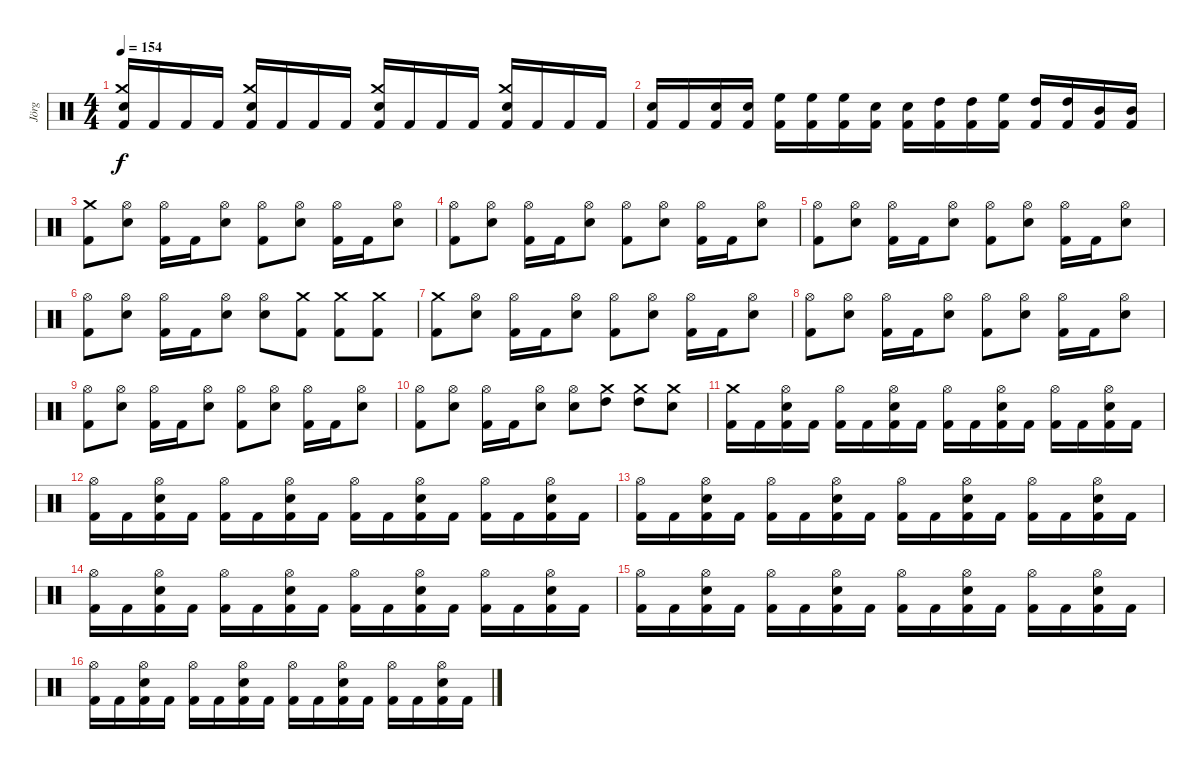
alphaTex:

\track ("Jörg" "Jörg") {instrument percussion}
\staff {score}
\articulation defaults
\ts (4 4)
\tempo 154
\clef neutral
\ks c
("Snare (hit) 2" "Crash medium (hit)" "Kick (hit) 2").16{dy f} "Kick (hit) 2".16 "Kick (hit) 2".16 "Kick (hit) 2".16 ("Snare (hit) 2" "Crash medium (hit)" "Kick (hit) 2").16 "Kick (hit) 2".16 "Kick (hit) 2".16 "Kick (hit) 2".16 ("Snare (hit) 2" "Crash medium (hit)" "Kick (hit) 2").16 "Kick (hit) 2".16 "Kick (hit) 2".16 "Kick (hit) 2".16 ("Snare (hit) 2" "Crash medium (hit)" "Kick (hit) 2").16 "Kick (hit) 2".16 "Kick (hit) 2".16 "Kick (hit) 2".16 |
("Snare (hit) 2" "Kick (hit) 2").16 "Kick (hit) 2".16 ("Snare (hit) 2" "Kick (hit) 2").16 ("Snare (hit) 2" "Kick (hit) 2").16 ("High Floor Tom (hit)" "Kick (hit) 2").16 ("High Floor Tom (hit)" "Kick (hit) 2").16 ("High Floor Tom (hit)" "Kick (hit) 2").16 ("Snare (hit) 2" "Kick (hit) 2").16 ("Snare (hit) 2" "Kick (hit) 2").16 ("High Tom (hit)" "Kick (hit) 2").16 ("High Tom (hit)" "Kick (hit) 2").16 ("High Floor Tom (hit)" "Kick (hit) 2").16 ("High Tom (hit)" "Kick (hit) 2").16 ("High Tom (hit)" "Kick (hit) 2").16 ("Mid Tom (hit)" "Kick (hit) 2").16 ("Mid Tom (hit)" "Kick (hit) 2").16 |
("Kick (hit) 2" "Crash medium (hit)").8 ("Snare (hit) 2" "Hi-Hat (open)").8 ("Kick (hit) 2" "Hi-Hat (open)").16 "Kick (hit) 2".16 ("Snare (hit) 2" "Hi-Hat (open)").8 ("Kick (hit) 2" "Hi-Hat (open)").8 ("Snare (hit) 2" "Hi-Hat (open)").8 ("Kick (hit) 2" "Hi-Hat (open)").16 "Kick (hit) 2".16 ("Snare (hit) 2" "Hi-Hat (open)").8 |
("Hi-Hat (open)" "Kick (hit) 2").8 ("Snare (hit) 2" "Hi-Hat (open)").8 ("Kick (hit) 2" "Hi-Hat (open)").16 "Kick (hit) 2".16 ("Snare (hit) 2" "Hi-Hat (open)").8 ("Kick (hit) 2" "Hi-Hat (open)").8 ("Snare (hit) 2" "Hi-Hat (open)").8 ("Kick (hit) 2" "Hi-Hat (open)").16 "Kick (hit) 2".16 ("Snare (hit) 2" "Hi-Hat (open)").8 |
("Hi-Hat (open)" "Kick (hit) 2").8 ("Snare (hit) 2" "Hi-Hat (open)").8 ("Kick (hit) 2" "Hi-Hat (open)").16 "Kick (hit) 2".16 ("Snare (hit) 2" "Hi-Hat (open)").8 ("Kick (hit) 2" "Hi-Hat (open)").8 ("Snare (hit) 2" "Hi-Hat (open)").8 ("Kick (hit) 2" "Hi-Hat (open)").16 "Kick (hit) 2".16 ("Snare (hit) 2" "Hi-Hat (open)").8 |
("Hi-Hat (open)" "Kick (hit) 2").8 ("Snare (hit) 2" "Hi-Hat (open)").8 ("Kick (hit) 2" "Hi-Hat (open)").16 "Kick (hit) 2".16 ("Snare (hit) 2" "Hi-Hat (open)").8 ("Snare (hit) 2" "Hi-Hat (open)").8 ("Kick (hit) 2" "Crash medium (hit)").8 ("Kick (hit) 2" "Crash medium (hit)").8 ("Kick (hit) 2" "Crash medium (hit)").8 |
("Kick (hit) 2" "Crash medium (hit)").8 ("Snare (hit) 2" "Hi-Hat (open)").8 ("Kick (hit) 2" "Hi-Hat (open)").16 "Kick (hit) 2".16 ("Snare (hit) 2" "Hi-Hat (open)").8 ("Kick (hit) 2" "Hi-Hat (open)").8 ("Snare (hit) 2" "Hi-Hat (open)").8 ("Kick (hit) 2" "Hi-Hat (open)").16 "Kick (hit) 2".16 ("Snare (hit) 2" "Hi-Hat (open)").8 |
("Hi-Hat (open)" "Kick (hit) 2").8 ("Snare (hit) 2" "Hi-Hat (open)").8 ("Kick (hit) 2" "Hi-Hat (open)").16 "Kick (hit) 2".16 ("Snare (hit) 2" "Hi-Hat (open)").8 ("Kick (hit) 2" "Hi-Hat (open)").8 ("Snare (hit) 2" "Hi-Hat (open)").8 ("Kick (hit) 2" "Hi-Hat (open)").16 "Kick (hit) 2".16 ("Snare (hit) 2" "Hi-Hat (open)").8 |
("Hi-Hat (open)" "Kick (hit) 2").8 ("Snare (hit) 2" "Hi-Hat (open)").8 ("Kick (hit) 2" "Hi-Hat (open)").16 "Kick (hit) 2".16 ("Snare (hit) 2" "Hi-Hat (open)").8 ("Kick (hit) 2" "Hi-Hat (open)").8 ("Snare (hit) 2" "Hi-Hat (open)").8 ("Kick (hit) 2" "Hi-Hat (open)").16 "Kick (hit) 2".16 ("Snare (hit) 2" "Hi-Hat (open)").8 |
("Hi-Hat (open)" "Kick (hit) 2").8 ("Snare (hit) 2" "Hi-Hat (open)").8 ("Kick (hit) 2" "Hi-Hat (open)").16 "Kick (hit) 2".16 ("Snare (hit) 2" "Hi-Hat (open)").8 ("Snare (hit) 2" "Hi-Hat (open)").8 ("High Tom (hit)" "Crash medium (hit)").8 ("High Tom (hit)" "Crash medium (hit)").8 ("Snare (hit) 2" "Crash medium (hit)").8 |
("Crash medium (hit)" "Kick (hit) 2").16 "Kick (hit) 2".16 ("Snare (hit) 2" "Hi-Hat (open)" "Kick (hit) 2").16 "Kick (hit) 2".16 ("Hi-Hat (open)" "Kick (hit) 2").16 "Kick (hit) 2".16 ("Snare (hit) 2" "Hi-Hat (open)" "Kick (hit) 2").16 "Kick (hit) 2".16 ("Hi-Hat (open)" "Kick (hit) 2").16 "Kick (hit) 2".16 ("Snare (hit) 2" "Hi-Hat (open)" "Kick (hit) 2").16 "Kick (hit) 2".16 ("Hi-Hat (open)" "Kick (hit) 2").16 "Kick (hit) 2".16 ("Snare (hit) 2" "Hi-Hat (open)" "Kick (hit) 2").16 "Kick (hit) 2".16 |
("Hi-Hat (open)" "Kick (hit) 2").16 "Kick (hit) 2".16 ("Snare (hit) 2" "Hi-Hat (open)" "Kick (hit) 2").16 "Kick (hit) 2".16 ("Hi-Hat (open)" "Kick (hit) 2").16 "Kick (hit) 2".16 ("Snare (hit) 2" "Hi-Hat (open)" "Kick (hit) 2").16 "Kick (hit) 2".16 ("Hi-Hat (open)" "Kick (hit) 2").16 "Kick (hit) 2".16 ("Snare (hit) 2" "Hi-Hat (open)" "Kick (hit) 2").16 "Kick (hit) 2".16 ("Hi-Hat (open)" "Kick (hit) 2").16 "Kick (hit) 2".16 ("Snare (hit) 2" "Hi-Hat (open)" "Kick (hit) 2").16 "Kick (hit) 2".16 |
("Hi-Hat (open)" "Kick (hit) 2").16 "Kick (hit) 2".16 ("Snare (hit) 2" "Hi-Hat (open)" "Kick (hit) 2").16 "Kick (hit) 2".16 ("Hi-Hat (open)" "Kick (hit) 2").16 "Kick (hit) 2".16 ("Snare (hit) 2" "Hi-Hat (open)" "Kick (hit) 2").16 "Kick (hit) 2".16 ("Hi-Hat (open)" "Kick (hit) 2").16 "Kick (hit) 2".16 ("Snare (hit) 2" "Hi-Hat (open)" "Kick (hit) 2").16 "Kick (hit) 2".16 ("Hi-Hat (open)" "Kick (hit) 2").16 "Kick (hit) 2".16 ("Snare (hit) 2" "Hi-Hat (open)" "Kick (hit) 2").16 "Kick (hit) 2".16 |
("Hi-Hat (open)" "Kick (hit) 2").16 "Kick (hit) 2".16 ("Snare (hit) 2" "Hi-Hat (open)" "Kick (hit) 2").16 "Kick (hit) 2".16 ("Hi-Hat (open)" "Kick (hit) 2").16 "Kick (hit) 2".16 ("Snare (hit) 2" "Hi-Hat (open)" "Kick (hit) 2").16 "Kick (hit) 2".16 ("Hi-Hat (open)" "Kick (hit) 2").16 "Kick (hit) 2".16 ("Snare (hit) 2" "Hi-Hat (open)" "Kick (hit) 2").16 "Kick (hit) 2".16 ("Hi-Hat (open)" "Kick (hit) 2").16 "Kick (hit) 2".16 ("Snare (hit) 2" "Hi-Hat (open)" "Kick (hit) 2").16 "Kick (hit) 2".16 |
("Hi-Hat (open)" "Kick (hit) 2").16 "Kick (hit) 2".16 ("Snare (hit) 2" "Hi-Hat (open)" "Kick (hit) 2").16 "Kick (hit) 2".16 ("Hi-Hat (open)" "Kick (hit) 2").16 "Kick (hit) 2".16 ("Snare (hit) 2" "Hi-Hat (open)" "Kick (hit) 2").16 "Kick (hit) 2".16 ("Hi-Hat (open)" "Kick (hit) 2").16 "Kick (hit) 2".16 ("Snare (hit) 2" "Hi-Hat (open)" "Kick (hit) 2").16 "Kick (hit) 2".16 ("Hi-Hat (open)" "Kick (hit) 2").16 "Kick (hit) 2".16 ("Snare (hit) 2" "Hi-Hat (open)" "Kick (hit) 2").16 "Kick (hit) 2".16 |
("Hi-Hat (open)" "Kick (hit) 2").16 "Kick (hit) 2".16 ("Snare (hit) 2" "Hi-Hat (open)" "Kick (hit) 2").16 "Kick (hit) 2".16 ("Hi-Hat (open)" "Kick (hit) 2").16 "Kick (hit) 2".16 ("Snare (hit) 2" "Hi-Hat (open)" "Kick (hit) 2").16 "Kick (hit) 2".16 ("Hi-Hat (open)" "Kick (hit) 2").16 "Kick (hit) 2".16 ("Snare (hit) 2" "Hi-Hat (open)" "Kick (hit) 2").16 "Kick (hit) 2".16 ("Hi-Hat (open)" "Kick (hit) 2").16 "Kick (hit) 2".16 ("Snare (hit) 2" "Hi-Hat (open)" "Kick (hit) 2").16 "Kick (hit) 2".16
